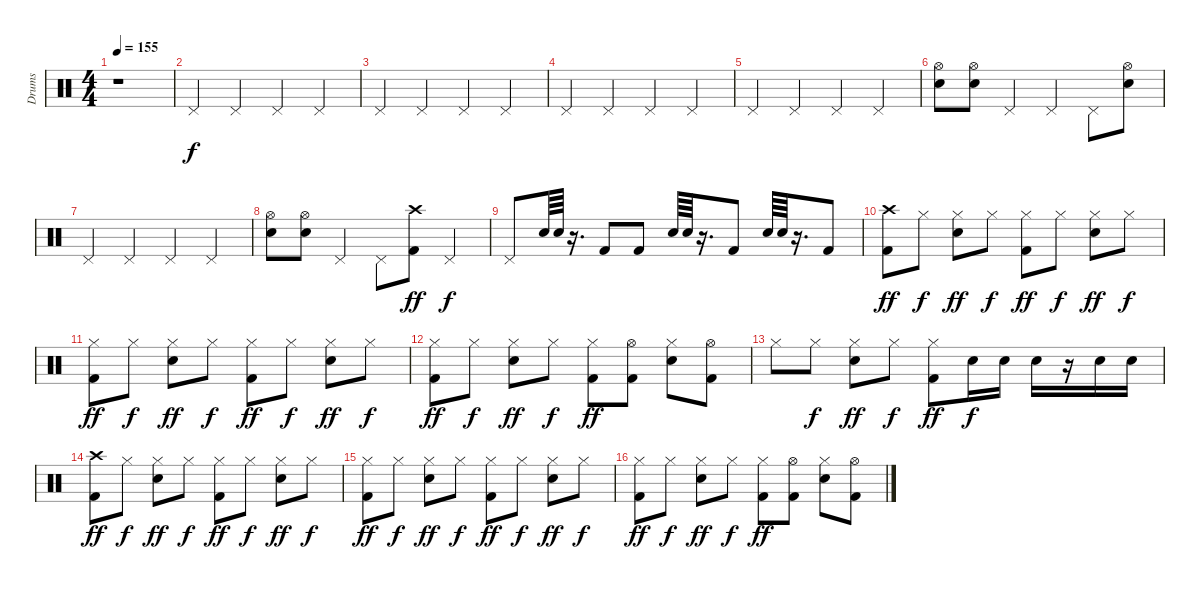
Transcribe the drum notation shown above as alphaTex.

\track ("Drums" "Drums") {instrument percussion}
\staff {score}
\articulation defaults
\ts (4 4)
\tempo 155
\clef neutral
\ks c
r.1{dy f} |
"Pedal Hi-Hat (hit)".4 "Pedal Hi-Hat (hit)".4 "Pedal Hi-Hat (hit)".4 "Pedal Hi-Hat (hit)".4 |
"Pedal Hi-Hat (hit)".4 "Pedal Hi-Hat (hit)".4 "Pedal Hi-Hat (hit)".4 "Pedal Hi-Hat (hit)".4 |
"Pedal Hi-Hat (hit)".4 "Pedal Hi-Hat (hit)".4 "Pedal Hi-Hat (hit)".4 "Pedal Hi-Hat (hit)".4 |
"Pedal Hi-Hat (hit)".4 "Pedal Hi-Hat (hit)".4 "Pedal Hi-Hat (hit)".4 "Pedal Hi-Hat (hit)".4 |
("Hi-Hat (open)" "Snare (hit) 2").8 ("Hi-Hat (open)" "Snare (hit) 2").8 "Pedal Hi-Hat (hit)".4 "Pedal Hi-Hat (hit)".4 "Pedal Hi-Hat (hit)".8 ("Hi-Hat (open)" "Snare (hit) 2").8 |
"Pedal Hi-Hat (hit)".4 "Pedal Hi-Hat (hit)".4 "Pedal Hi-Hat (hit)".4 "Pedal Hi-Hat (hit)".4 |
("Hi-Hat (open)" "Snare (hit) 2").8 ("Hi-Hat (open)" "Snare (hit) 2").8 "Pedal Hi-Hat (hit)".4 "Pedal Hi-Hat (hit)".8 ("Crash high (hit)" "Kick (hit) 2").8{dy ff} "Pedal Hi-Hat (hit)".4{dy f} |
"Pedal Hi-Hat (hit)".8 "Snare (hit) 2".64 "Snare (hit) 2".64 r.16{d} "Kick (hit) 2".8 "Kick (hit) 2".8 "Snare (hit) 2".64 "Snare (hit) 2".64 r.16{d} "Kick (hit) 2".8 "Snare (hit) 2".64 "Snare (hit) 2".64 r.16{d} "Kick (hit) 2".8 |
("Crash high (hit)" "Kick (hit) 2").8{dy ff} "Hi-Hat (closed)".8{dy f} ("Hi-Hat (closed)" "Snare (hit) 2").8{dy ff} "Hi-Hat (closed)".8{dy f} ("Hi-Hat (closed)" "Kick (hit) 2").8{dy ff} "Hi-Hat (closed)".8{dy f} ("Hi-Hat (closed)" "Snare (hit) 2").8{dy ff} "Hi-Hat (closed)".8{dy f} |
("Hi-Hat (closed)" "Kick (hit) 2").8{dy ff} "Hi-Hat (closed)".8{dy f} ("Hi-Hat (closed)" "Snare (hit) 2").8{dy ff} "Hi-Hat (closed)".8{dy f} ("Hi-Hat (closed)" "Kick (hit) 2").8{dy ff} "Hi-Hat (closed)".8{dy f} ("Hi-Hat (closed)" "Snare (hit) 2").8{dy ff} "Hi-Hat (closed)".8{dy f} |
("Hi-Hat (closed)" "Kick (hit) 2").8{dy ff} "Hi-Hat (closed)".8{dy f} ("Hi-Hat (closed)" "Snare (hit) 2").8{dy ff} "Hi-Hat (closed)".8{dy f} ("Hi-Hat (closed)" "Kick (hit) 2").8{dy ff} ("Hi-Hat (open)" "Kick (hit) 2").8 ("Hi-Hat (closed)" "Snare (hit) 2").8 ("Hi-Hat (open)" "Kick (hit) 2").8 |
"Hi-Hat (closed)".8 "Hi-Hat (closed)".8{dy f} ("Hi-Hat (closed)" "Snare (hit) 2").8{dy ff} "Hi-Hat (closed)".8{dy f} ("Hi-Hat (closed)" "Kick (hit) 2").8{dy ff} "Snare (hit) 2".16{dy f} "Snare (hit) 2".16 "Snare (hit) 2".16 r.16 "Snare (hit) 2".16 "Snare (hit) 2".16 |
("Crash high (hit)" "Kick (hit) 2").8{dy ff} "Hi-Hat (closed)".8{dy f} ("Hi-Hat (closed)" "Snare (hit) 2").8{dy ff} "Hi-Hat (closed)".8{dy f} ("Hi-Hat (closed)" "Kick (hit) 2").8{dy ff} "Hi-Hat (closed)".8{dy f} ("Hi-Hat (closed)" "Snare (hit) 2").8{dy ff} "Hi-Hat (closed)".8{dy f} |
("Hi-Hat (closed)" "Kick (hit) 2").8{dy ff} "Hi-Hat (closed)".8{dy f} ("Hi-Hat (closed)" "Snare (hit) 2").8{dy ff} "Hi-Hat (closed)".8{dy f} ("Hi-Hat (closed)" "Kick (hit) 2").8{dy ff} "Hi-Hat (closed)".8{dy f} ("Hi-Hat (closed)" "Snare (hit) 2").8{dy ff} "Hi-Hat (closed)".8{dy f} |
("Hi-Hat (closed)" "Kick (hit) 2").8{dy ff} "Hi-Hat (closed)".8{dy f} ("Hi-Hat (closed)" "Snare (hit) 2").8{dy ff} "Hi-Hat (closed)".8{dy f} ("Hi-Hat (closed)" "Kick (hit) 2").8{dy ff} ("Hi-Hat (open)" "Kick (hit) 2").8 ("Hi-Hat (closed)" "Snare (hit) 2").8 ("Hi-Hat (open)" "Kick (hit) 2").8
